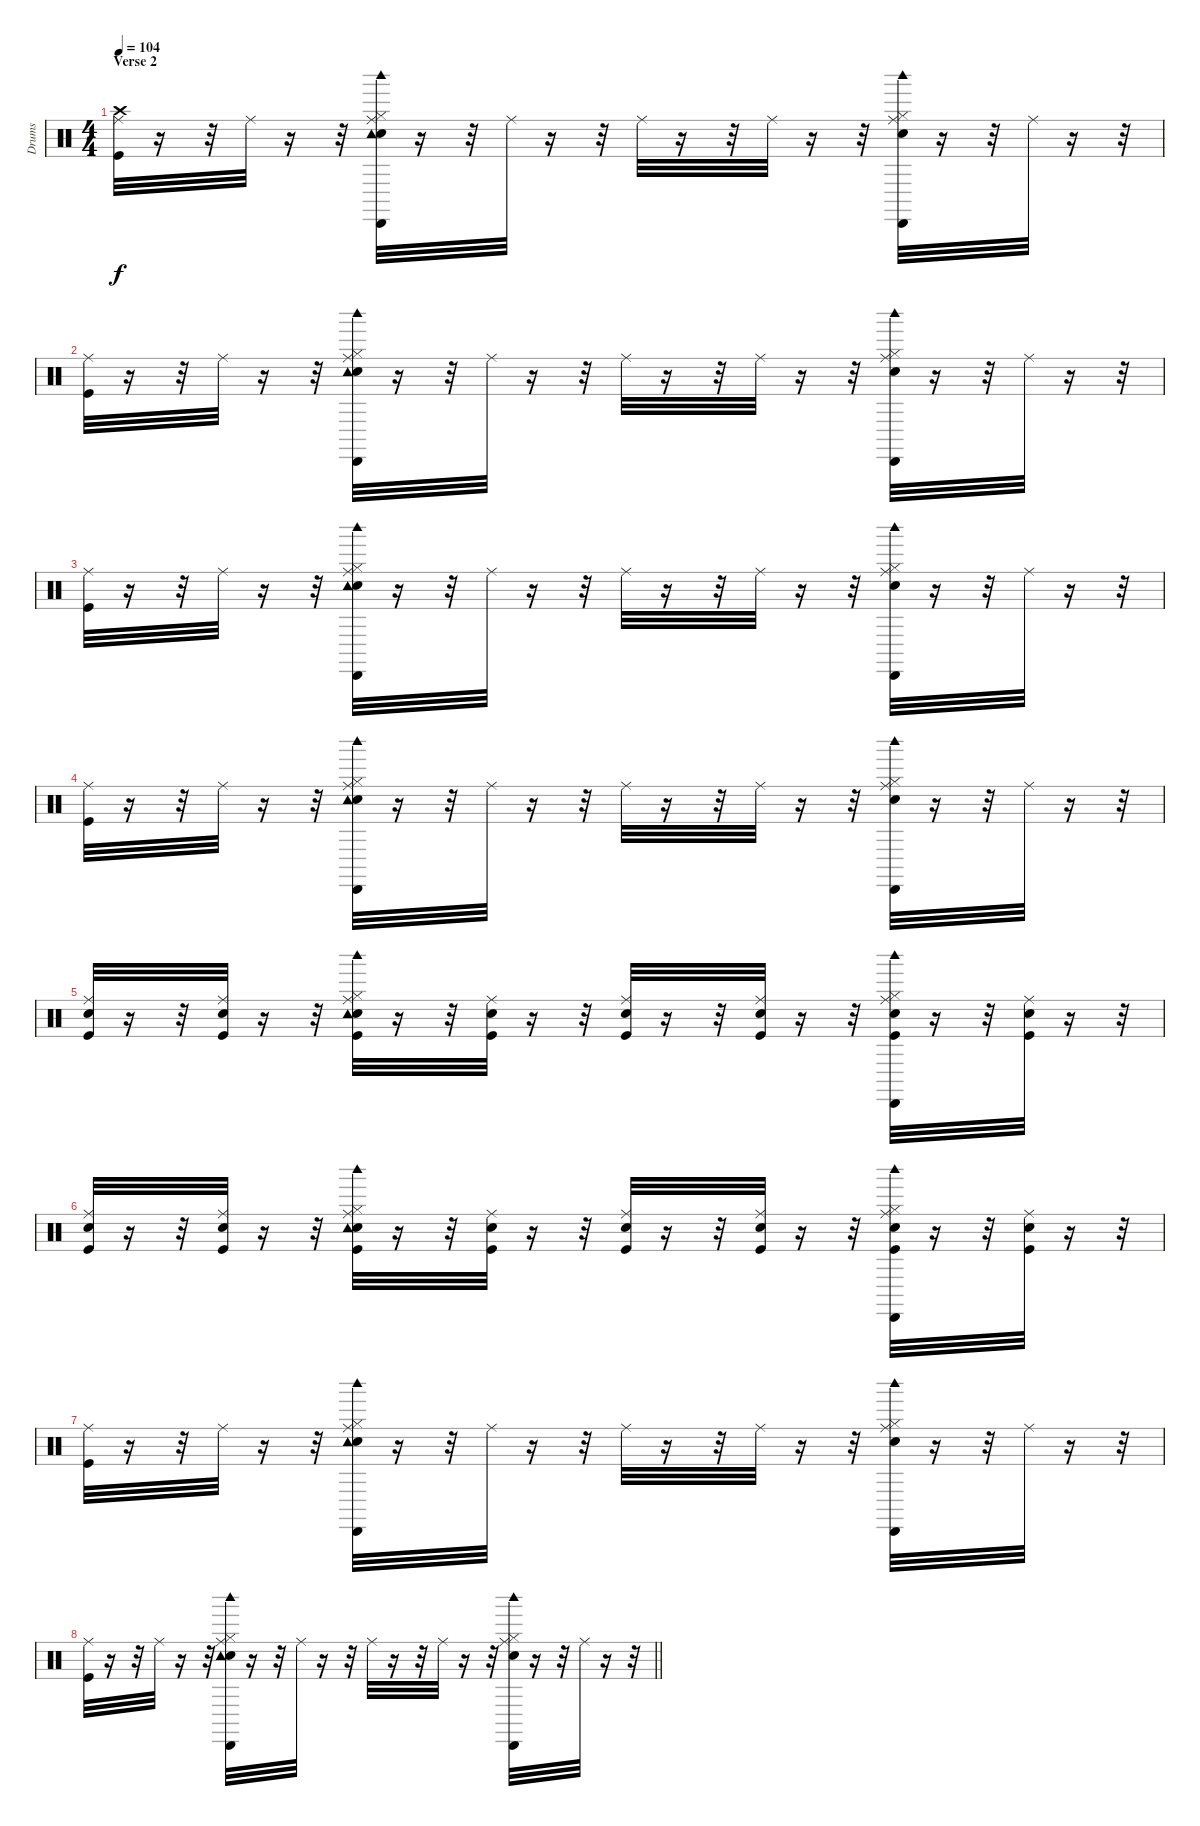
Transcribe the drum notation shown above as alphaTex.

\track ("Drums" "Drums") {instrument percussion}
\staff {score}
\articulation defaults
\ts (4 4)
\section ("" "Verse 2")
\tempo 104
\clef neutral
\ks c
("Kick (hit)" "Crash high (hit)" "Ride (middle)").32{dy f} r.16 r.32 "Ride (middle)".32 r.16 r.32 ("Snare (hit) 2" "Hi-Hat (closed)" "Ride (middle)" "Tambourine (hit)" "Cabasa (hit)" "Woodblock high (hit)").32 r.16 r.32 "Ride (middle)".32 r.16 r.32 "Ride (middle)".32 r.16 r.32 "Ride (middle)".32 r.16 r.32 ("Snare (hit) 2" "Hi-Hat (closed)" "Ride (middle)" "Cabasa (hit)" "Woodblock high (hit)").32 r.16 r.32 "Ride (middle)".32 r.16 r.32 |
("Kick (hit)" "Ride (middle)").32 r.16 r.32 "Ride (middle)".32 r.16 r.32 ("Snare (hit) 2" "Hi-Hat (closed)" "Ride (middle)" "Tambourine (hit)" "Cabasa (hit)" "Woodblock high (hit)").32 r.16 r.32 "Ride (middle)".32 r.16 r.32 "Ride (middle)".32 r.16 r.32 "Ride (middle)".32 r.16 r.32 ("Snare (hit) 2" "Hi-Hat (closed)" "Ride (middle)" "Cabasa (hit)" "Woodblock high (hit)").32 r.16 r.32 "Ride (middle)".32 r.16 r.32 |
("Kick (hit)" "Ride (middle)").32 r.16 r.32 "Ride (middle)".32 r.16 r.32 ("Snare (hit) 2" "Hi-Hat (closed)" "Ride (middle)" "Tambourine (hit)" "Cabasa (hit)" "Woodblock high (hit)").32 r.16 r.32 "Ride (middle)".32 r.16 r.32 "Ride (middle)".32 r.16 r.32 "Ride (middle)".32 r.16 r.32 ("Snare (hit) 2" "Hi-Hat (closed)" "Ride (middle)" "Cabasa (hit)" "Woodblock high (hit)").32 r.16 r.32 "Ride (middle)".32 r.16 r.32 |
("Kick (hit)" "Ride (middle)").32 r.16 r.32 "Ride (middle)".32 r.16 r.32 ("Snare (hit) 2" "Hi-Hat (closed)" "Ride (middle)" "Tambourine (hit)" "Cabasa (hit)" "Woodblock high (hit)").32 r.16 r.32 "Ride (middle)".32 r.16 r.32 "Ride (middle)".32 r.16 r.32 "Ride (middle)".32 r.16 r.32 ("Snare (hit) 2" "Hi-Hat (closed)" "Ride (middle)" "Cabasa (hit)" "Woodblock high (hit)").32 r.16 r.32 "Ride (middle)".32 r.16 r.32 |
("Kick (hit)" "Snare (hit) 2" "Ride (middle)").32 r.16 r.32 ("Kick (hit)" "Snare (hit) 2" "Ride (middle)").32 r.16 r.32 ("Kick (hit)" "Snare (hit) 2" "Hi-Hat (closed)" "Ride (middle)" "Tambourine (hit)" "Woodblock high (hit)").32 r.16 r.32 ("Kick (hit)" "Snare (hit) 2" "Ride (middle)").32 r.16 r.32 ("Kick (hit)" "Snare (hit) 2" "Ride (middle)").32 r.16 r.32 ("Kick (hit)" "Snare (hit) 2" "Ride (middle)").32 r.16 r.32 ("Kick (hit)" "Snare (hit) 2" "Hi-Hat (closed)" "Ride (middle)" "Cabasa (hit)" "Woodblock high (hit)").32 r.16 r.32 ("Kick (hit)" "Snare (hit) 2" "Ride (middle)").32 r.16 r.32 |
("Kick (hit)" "Snare (hit) 2" "Ride (middle)").32 r.16 r.32 ("Kick (hit)" "Snare (hit) 2" "Ride (middle)").32 r.16 r.32 ("Kick (hit)" "Snare (hit) 2" "Hi-Hat (closed)" "Ride (middle)" "Tambourine (hit)" "Woodblock high (hit)").32 r.16 r.32 ("Kick (hit)" "Snare (hit) 2" "Ride (middle)").32 r.16 r.32 ("Kick (hit)" "Snare (hit) 2" "Ride (middle)").32 r.16 r.32 ("Kick (hit)" "Snare (hit) 2" "Ride (middle)").32 r.16 r.32 ("Kick (hit)" "Snare (hit) 2" "Hi-Hat (closed)" "Ride (middle)" "Cabasa (hit)" "Woodblock high (hit)").32 r.16 r.32 ("Kick (hit)" "Snare (hit) 2" "Ride (middle)").32 r.16 r.32 |
("Kick (hit)" "Ride (middle)").32 r.16 r.32 "Ride (middle)".32 r.16 r.32 ("Snare (hit) 2" "Hi-Hat (closed)" "Ride (middle)" "Tambourine (hit)" "Cabasa (hit)" "Woodblock high (hit)").32 r.16 r.32 "Ride (middle)".32 r.16 r.32 "Ride (middle)".32 r.16 r.32 "Ride (middle)".32 r.16 r.32 ("Snare (hit) 2" "Hi-Hat (closed)" "Ride (middle)" "Cabasa (hit)" "Woodblock high (hit)").32 r.16 r.32 "Ride (middle)".32 r.16 r.32 |
\barLineRight lightlight
("Kick (hit)" "Ride (middle)").32 r.16 r.32 "Ride (middle)".32 r.16 r.32 ("Snare (hit) 2" "Hi-Hat (closed)" "Ride (middle)" "Tambourine (hit)" "Cabasa (hit)" "Woodblock high (hit)").32 r.16 r.32 "Ride (middle)".32 r.16 r.32 "Ride (middle)".32 r.16 r.32 "Ride (middle)".32 r.16 r.32 ("Snare (hit) 2" "Hi-Hat (closed)" "Ride (middle)" "Cabasa (hit)" "Woodblock high (hit)").32 r.16 r.32 "Ride (middle)".32 r.16 r.32
